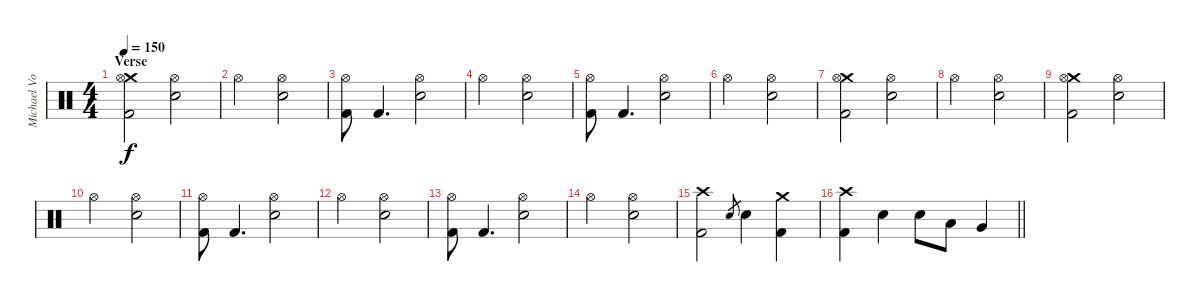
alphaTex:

\track ("Michael Von Knorring" "Michael Vo") {instrument percussion}
\staff {score}
\articulation defaults
\ts (4 4)
\section ("" "Verse")
\tempo 150
\clef neutral
\ks c
("Crash medium (hit)" "Hi-Hat (open)" "Kick (hit) 2").2{dy f} ("Hi-Hat (open)" "Snare (hit) 2").2 |
"Hi-Hat (open)".2 ("Hi-Hat (open)" "Snare (hit) 2").2 |
("Hi-Hat (open)" "Kick (hit) 2").8 "Kick (hit) 2".4{d} ("Hi-Hat (open)" "Snare (hit) 2").2 |
"Hi-Hat (open)".2 ("Hi-Hat (open)" "Snare (hit) 2").2 |
("Hi-Hat (open)" "Kick (hit) 2").8 "Kick (hit) 2".4{d} ("Hi-Hat (open)" "Snare (hit) 2").2 |
"Hi-Hat (open)".2 ("Hi-Hat (open)" "Snare (hit) 2").2 |
("Crash medium (hit)" "Hi-Hat (open)" "Kick (hit) 2").2 ("Hi-Hat (open)" "Snare (hit) 2").2 |
"Hi-Hat (open)".2 ("Hi-Hat (open)" "Snare (hit) 2").2 |
("Crash medium (hit)" "Hi-Hat (open)" "Kick (hit) 2").2 ("Hi-Hat (open)" "Snare (hit) 2").2 |
"Hi-Hat (open)".2 ("Hi-Hat (open)" "Snare (hit) 2").2 |
("Hi-Hat (open)" "Kick (hit) 2").8 "Kick (hit) 2".4{d} ("Hi-Hat (open)" "Snare (hit) 2").2 |
"Hi-Hat (open)".2 ("Hi-Hat (open)" "Snare (hit) 2").2 |
("Hi-Hat (open)" "Kick (hit) 2").8 "Kick (hit) 2".4{d} ("Hi-Hat (open)" "Snare (hit) 2").2 |
"Hi-Hat (open)".2 ("Hi-Hat (open)" "Snare (hit) 2").2 |
("Crash high (hit)" "Kick (hit) 2").2 "Snare (hit) 2".8{gr} "Snare (hit) 2".4 ("Crash medium (hit)" "Kick (hit) 2").4 |
\barLineRight lightlight
("Crash high (hit)" "Kick (hit) 2").4 "Snare (hit) 2".4 "Snare (hit) 2".8 "Low Tom (hit)".8 "Very Low Tom (hit)".4
